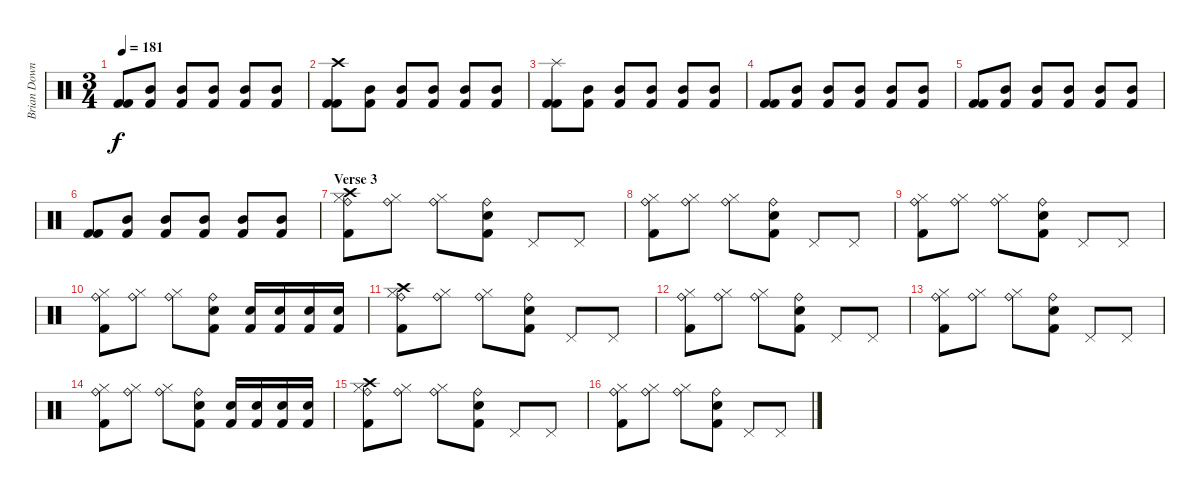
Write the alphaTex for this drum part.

\track ("Brian Downey" "Brian Down") {instrument percussion}
\staff {score}
\articulation defaults
\ts (3 4)
\tempo 181
\clef neutral
\ks c
("Kick (hit) 2" "Kick (hit) 2").8{dy f} ("Mid Tom (hit)" "Kick (hit) 2").8 ("Mid Tom (hit)" "Kick (hit) 2").8 ("Mid Tom (hit)" "Kick (hit) 2").8 ("Mid Tom (hit)" "Kick (hit) 2").8 ("Mid Tom (hit)" "Kick (hit) 2").8 |
("Crash high (hit)" "Kick (hit) 2" "Kick (hit) 2").8 ("Mid Tom (hit)" "Kick (hit) 2").8 ("Mid Tom (hit)" "Kick (hit) 2").8 ("Mid Tom (hit)" "Kick (hit) 2").8 ("Mid Tom (hit)" "Kick (hit) 2").8 ("Mid Tom (hit)" "Kick (hit) 2").8 |
("Splash (hit)" "Kick (hit) 2" "Kick (hit) 2").8 ("Mid Tom (hit)" "Kick (hit) 2").8 ("Mid Tom (hit)" "Kick (hit) 2").8 ("Mid Tom (hit)" "Kick (hit) 2").8 ("Mid Tom (hit)" "Kick (hit) 2").8 ("Mid Tom (hit)" "Kick (hit) 2").8 |
("Kick (hit) 2" "Kick (hit) 2").8 ("Mid Tom (hit)" "Kick (hit) 2").8 ("Mid Tom (hit)" "Kick (hit) 2").8 ("Mid Tom (hit)" "Kick (hit) 2").8 ("Mid Tom (hit)" "Kick (hit) 2").8 ("Mid Tom (hit)" "Kick (hit) 2").8 |
("Kick (hit) 2" "Kick (hit) 2").8 ("Mid Tom (hit)" "Kick (hit) 2").8 ("Mid Tom (hit)" "Kick (hit) 2").8 ("Mid Tom (hit)" "Kick (hit) 2").8 ("Mid Tom (hit)" "Kick (hit) 2").8 ("Mid Tom (hit)" "Kick (hit) 2").8 |
("Kick (hit) 2" "Kick (hit) 2").8 ("Mid Tom (hit)" "Kick (hit) 2").8 ("Mid Tom (hit)" "Kick (hit) 2").8 ("Mid Tom (hit)" "Kick (hit) 2").8 ("Mid Tom (hit)" "Kick (hit) 2").8 ("Mid Tom (hit)" "Kick (hit) 2").8 |
\section ("" "Verse 3")
("Crash high (hit)" "Ride (bell)" "Hi-Hat (closed)" "Kick (hit) 2").8 ("Ride (bell)" "Hi-Hat (closed)").8 ("Ride (bell)" "Hi-Hat (closed)").8 ("Ride (bell)" "Snare (hit) 2" "Kick (hit) 2").8 "Pedal Hi-Hat (hit)".8 "Pedal Hi-Hat (hit)".8 |
("Ride (bell)" "Hi-Hat (closed)" "Kick (hit) 2").8 ("Ride (bell)" "Hi-Hat (closed)").8 ("Ride (bell)" "Hi-Hat (closed)").8 ("Ride (bell)" "Snare (hit) 2" "Kick (hit) 2").8 "Pedal Hi-Hat (hit)".8 "Pedal Hi-Hat (hit)".8 |
("Ride (bell)" "Hi-Hat (closed)" "Kick (hit) 2").8 ("Ride (bell)" "Hi-Hat (closed)").8 ("Ride (bell)" "Hi-Hat (closed)").8 ("Ride (bell)" "Snare (hit) 2" "Kick (hit) 2").8 "Pedal Hi-Hat (hit)".8 "Pedal Hi-Hat (hit)".8 |
("Ride (bell)" "Hi-Hat (closed)" "Kick (hit) 2").8 ("Ride (bell)" "Hi-Hat (closed)").8 ("Ride (bell)" "Hi-Hat (closed)").8 ("Ride (bell)" "Snare (hit) 2" "Kick (hit) 2").8 ("Snare (hit) 2" "Kick (hit) 2").16 ("Snare (hit) 2" "Kick (hit) 2").16 ("Snare (hit) 2" "Kick (hit) 2").16 ("Snare (hit) 2" "Kick (hit) 2").16 |
("Crash high (hit)" "Ride (bell)" "Hi-Hat (closed)" "Kick (hit) 2").8 ("Ride (bell)" "Hi-Hat (closed)").8 ("Ride (bell)" "Hi-Hat (closed)").8 ("Ride (bell)" "Snare (hit) 2" "Kick (hit) 2").8 "Pedal Hi-Hat (hit)".8 "Pedal Hi-Hat (hit)".8 |
("Ride (bell)" "Hi-Hat (closed)" "Kick (hit) 2").8 ("Ride (bell)" "Hi-Hat (closed)").8 ("Ride (bell)" "Hi-Hat (closed)").8 ("Ride (bell)" "Snare (hit) 2" "Kick (hit) 2").8 "Pedal Hi-Hat (hit)".8 "Pedal Hi-Hat (hit)".8 |
("Ride (bell)" "Hi-Hat (closed)" "Kick (hit) 2").8 ("Ride (bell)" "Hi-Hat (closed)").8 ("Ride (bell)" "Hi-Hat (closed)").8 ("Ride (bell)" "Snare (hit) 2" "Kick (hit) 2").8 "Pedal Hi-Hat (hit)".8 "Pedal Hi-Hat (hit)".8 |
("Ride (bell)" "Hi-Hat (closed)" "Kick (hit) 2").8 ("Ride (bell)" "Hi-Hat (closed)").8 ("Ride (bell)" "Hi-Hat (closed)").8 ("Ride (bell)" "Snare (hit) 2" "Kick (hit) 2").8 ("Snare (hit) 2" "Kick (hit) 2").16 ("Snare (hit) 2" "Kick (hit) 2").16 ("Snare (hit) 2" "Kick (hit) 2").16 ("Snare (hit) 2" "Kick (hit) 2").16 |
("Crash high (hit)" "Ride (bell)" "Hi-Hat (closed)" "Kick (hit) 2").8 ("Ride (bell)" "Hi-Hat (closed)").8 ("Ride (bell)" "Hi-Hat (closed)").8 ("Ride (bell)" "Snare (hit) 2" "Kick (hit) 2").8 "Pedal Hi-Hat (hit)".8 "Pedal Hi-Hat (hit)".8 |
("Ride (bell)" "Hi-Hat (closed)" "Kick (hit) 2").8 ("Ride (bell)" "Hi-Hat (closed)").8 ("Ride (bell)" "Hi-Hat (closed)").8 ("Ride (bell)" "Snare (hit) 2" "Kick (hit) 2").8 "Pedal Hi-Hat (hit)".8 "Pedal Hi-Hat (hit)".8
